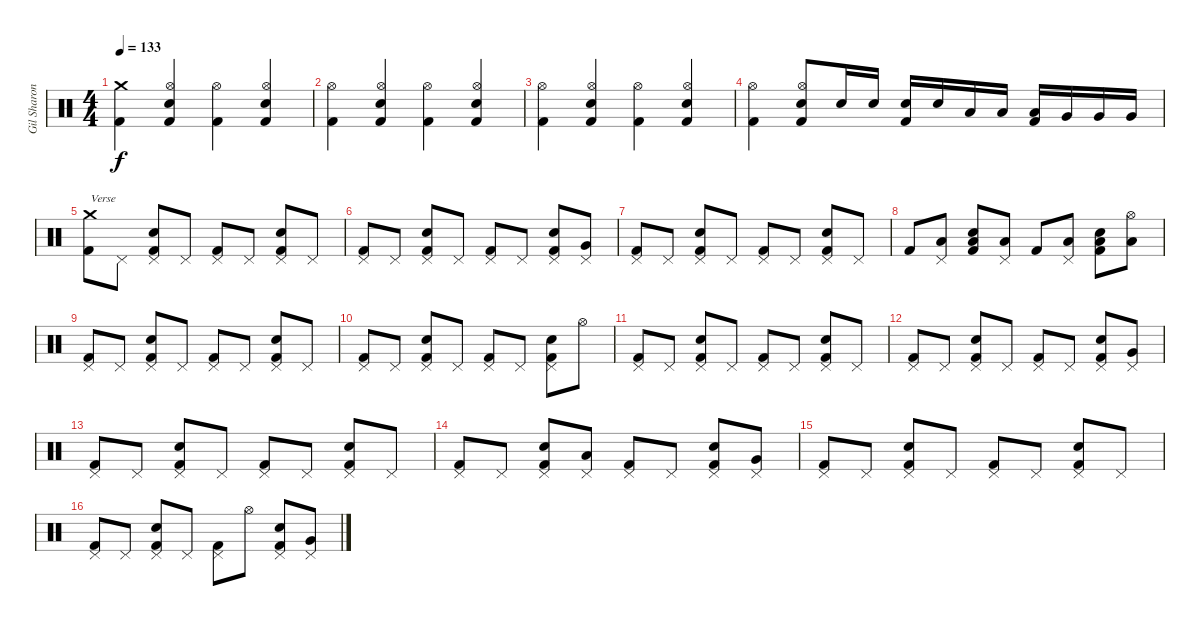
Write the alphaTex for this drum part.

\track ("Gil Sharone" "Gil Sharon") {instrument percussion}
\staff {score}
\articulation defaults
\ts (4 4)
\tempo 133
\clef neutral
\ks c
("Crash medium (hit)" "Kick (hit) 2").4{dy f} ("Hi-Hat (open)" "Electric Snare (hit)" "Kick (hit) 2").4 ("Hi-Hat (open)" "Kick (hit) 2").4 ("Hi-Hat (open)" "Electric Snare (hit)" "Kick (hit) 2").4 |
("Hi-Hat (open)" "Kick (hit) 2").4 ("Hi-Hat (open)" "Electric Snare (hit)" "Kick (hit) 2").4 ("Hi-Hat (open)" "Kick (hit) 2").4 ("Hi-Hat (open)" "Electric Snare (hit)" "Kick (hit) 2").4 |
("Hi-Hat (open)" "Kick (hit) 2").4 ("Hi-Hat (open)" "Electric Snare (hit)" "Kick (hit) 2").4 ("Hi-Hat (open)" "Kick (hit) 2").4 ("Hi-Hat (open)" "Electric Snare (hit)" "Kick (hit) 2").4 |
("Hi-Hat (open)" "Kick (hit) 2").4 ("Hi-Hat (open)" "Electric Snare (hit)" "Kick (hit) 2").8 "Electric Snare (hit)".16 "Electric Snare (hit)".16 ("Electric Snare (hit)" "Kick (hit) 2").16 "Electric Snare (hit)".16 "Low Tom (hit)".16 "Low Tom (hit)".16 ("Low Tom (hit)" "Kick (hit) 2").16 "Very Low Tom (hit)".16 "Very Low Tom (hit)".16 "Very Low Tom (hit)".16 |
("Crash medium (hit)" "Kick (hit) 2").8{txt "Verse"} "Pedal Hi-Hat (hit)".8 ("Pedal Hi-Hat (hit)" "Electric Snare (hit)" "Kick (hit) 2").8 "Pedal Hi-Hat (hit)".8 ("Pedal Hi-Hat (hit)" "Kick (hit) 2").8 "Pedal Hi-Hat (hit)".8 ("Pedal Hi-Hat (hit)" "Electric Snare (hit)" "Kick (hit) 2").8 "Pedal Hi-Hat (hit)".8 |
("Pedal Hi-Hat (hit)" "Kick (hit) 2").8 "Pedal Hi-Hat (hit)".8 ("Pedal Hi-Hat (hit)" "Electric Snare (hit)" "Kick (hit) 2").8 "Pedal Hi-Hat (hit)".8 ("Pedal Hi-Hat (hit)" "Kick (hit) 2").8 "Pedal Hi-Hat (hit)".8 ("Pedal Hi-Hat (hit)" "Electric Snare (hit)" "Kick (hit) 2").8 ("Pedal Hi-Hat (hit)" "Very Low Tom (hit)").8 |
("Pedal Hi-Hat (hit)" "Kick (hit) 2").8 "Pedal Hi-Hat (hit)".8 ("Pedal Hi-Hat (hit)" "Electric Snare (hit)" "Kick (hit) 2").8 "Pedal Hi-Hat (hit)".8 ("Pedal Hi-Hat (hit)" "Kick (hit) 2").8 "Pedal Hi-Hat (hit)".8 ("Pedal Hi-Hat (hit)" "Electric Snare (hit)" "Kick (hit) 2").8 "Pedal Hi-Hat (hit)".8 |
"Kick (hit) 2".8 ("Pedal Hi-Hat (hit)" "Low Tom (hit)").8 ("Electric Snare (hit)" "Low Tom (hit)" "Kick (hit) 2").8 ("Pedal Hi-Hat (hit)" "Low Tom (hit)").8 "Kick (hit) 2".8 ("Pedal Hi-Hat (hit)" "Low Tom (hit)").8 ("Electric Snare (hit)" "Low Tom (hit)" "Kick (hit) 2").8 ("Hi-Hat (open)" "Low Tom (hit)").8 |
("Pedal Hi-Hat (hit)" "Kick (hit) 2").8 "Pedal Hi-Hat (hit)".8 ("Pedal Hi-Hat (hit)" "Electric Snare (hit)" "Kick (hit) 2").8 "Pedal Hi-Hat (hit)".8 ("Pedal Hi-Hat (hit)" "Kick (hit) 2").8 "Pedal Hi-Hat (hit)".8 ("Pedal Hi-Hat (hit)" "Electric Snare (hit)" "Kick (hit) 2").8 "Pedal Hi-Hat (hit)".8 |
("Pedal Hi-Hat (hit)" "Kick (hit) 2").8 "Pedal Hi-Hat (hit)".8 ("Pedal Hi-Hat (hit)" "Electric Snare (hit)" "Kick (hit) 2").8 "Pedal Hi-Hat (hit)".8 ("Pedal Hi-Hat (hit)" "Kick (hit) 2").8 "Pedal Hi-Hat (hit)".8 ("Pedal Hi-Hat (hit)" "Electric Snare (hit)" "Kick (hit) 2").8 "Hi-Hat (open)".8 |
("Pedal Hi-Hat (hit)" "Kick (hit) 2").8 "Pedal Hi-Hat (hit)".8 ("Pedal Hi-Hat (hit)" "Electric Snare (hit)" "Kick (hit) 2").8 "Pedal Hi-Hat (hit)".8 ("Pedal Hi-Hat (hit)" "Kick (hit) 2").8 "Pedal Hi-Hat (hit)".8 ("Pedal Hi-Hat (hit)" "Electric Snare (hit)" "Kick (hit) 2").8 "Pedal Hi-Hat (hit)".8 |
("Pedal Hi-Hat (hit)" "Kick (hit) 2").8 "Pedal Hi-Hat (hit)".8 ("Pedal Hi-Hat (hit)" "Electric Snare (hit)" "Kick (hit) 2").8 "Pedal Hi-Hat (hit)".8 ("Pedal Hi-Hat (hit)" "Kick (hit) 2").8 "Pedal Hi-Hat (hit)".8 ("Pedal Hi-Hat (hit)" "Electric Snare (hit)" "Kick (hit) 2").8 ("Pedal Hi-Hat (hit)" "Very Low Tom (hit)").8 |
("Pedal Hi-Hat (hit)" "Kick (hit) 2").8 "Pedal Hi-Hat (hit)".8 ("Pedal Hi-Hat (hit)" "Electric Snare (hit)" "Kick (hit) 2").8 "Pedal Hi-Hat (hit)".8 ("Pedal Hi-Hat (hit)" "Kick (hit) 2").8 "Pedal Hi-Hat (hit)".8 ("Pedal Hi-Hat (hit)" "Electric Snare (hit)" "Kick (hit) 2").8 "Pedal Hi-Hat (hit)".8 |
("Pedal Hi-Hat (hit)" "Kick (hit) 2").8 "Pedal Hi-Hat (hit)".8 ("Pedal Hi-Hat (hit)" "Electric Snare (hit)" "Kick (hit) 2").8 ("Pedal Hi-Hat (hit)" "Low Tom (hit)").8 ("Pedal Hi-Hat (hit)" "Kick (hit) 2").8 "Pedal Hi-Hat (hit)".8 ("Pedal Hi-Hat (hit)" "Electric Snare (hit)" "Kick (hit) 2").8 ("Pedal Hi-Hat (hit)" "Very Low Tom (hit)").8 |
("Pedal Hi-Hat (hit)" "Kick (hit) 2").8 "Pedal Hi-Hat (hit)".8 ("Pedal Hi-Hat (hit)" "Electric Snare (hit)" "Kick (hit) 2").8 "Pedal Hi-Hat (hit)".8 ("Pedal Hi-Hat (hit)" "Kick (hit) 2").8 "Pedal Hi-Hat (hit)".8 ("Pedal Hi-Hat (hit)" "Electric Snare (hit)" "Kick (hit) 2").8 "Pedal Hi-Hat (hit)".8 |
("Pedal Hi-Hat (hit)" "Kick (hit) 2").8 "Pedal Hi-Hat (hit)".8 ("Pedal Hi-Hat (hit)" "Electric Snare (hit)" "Kick (hit) 2").8 "Pedal Hi-Hat (hit)".8 ("Pedal Hi-Hat (hit)" "Kick (hit) 2").8 "Hi-Hat (open)".8 ("Pedal Hi-Hat (hit)" "Electric Snare (hit)" "Kick (hit) 2").8 ("Pedal Hi-Hat (hit)" "Very Low Tom (hit)").8
